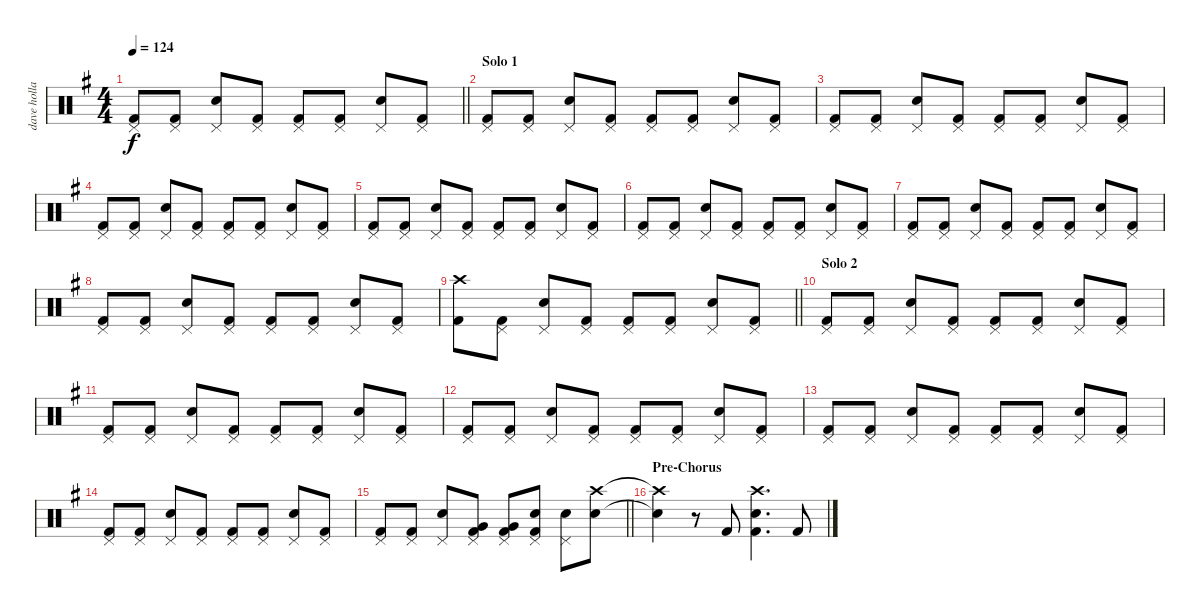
\track ("dave holland" "dave holla") {instrument percussion}
\staff {score}
\articulation defaults
\ts (4 4)
\tempo 124
\clef neutral
\barLineRight lightlight
\ks g
("Pedal Hi-Hat (hit)" "Kick (hit) 2").8{dy f} ("Pedal Hi-Hat (hit)" "Kick (hit) 2").8 ("Pedal Hi-Hat (hit)" "Snare (hit) 2").8 ("Pedal Hi-Hat (hit)" "Kick (hit) 2").8 ("Pedal Hi-Hat (hit)" "Kick (hit) 2").8 ("Pedal Hi-Hat (hit)" "Kick (hit) 2").8 ("Pedal Hi-Hat (hit)" "Snare (hit) 2").8 ("Pedal Hi-Hat (hit)" "Kick (hit) 2").8 |
\section ("" "Solo 1")
("Pedal Hi-Hat (hit)" "Kick (hit) 2").8 ("Pedal Hi-Hat (hit)" "Kick (hit) 2").8 ("Pedal Hi-Hat (hit)" "Snare (hit) 2").8 ("Pedal Hi-Hat (hit)" "Kick (hit) 2").8 ("Pedal Hi-Hat (hit)" "Kick (hit) 2").8 ("Pedal Hi-Hat (hit)" "Kick (hit) 2").8 ("Pedal Hi-Hat (hit)" "Snare (hit) 2").8 ("Pedal Hi-Hat (hit)" "Kick (hit) 2").8 |
("Pedal Hi-Hat (hit)" "Kick (hit) 2").8 ("Pedal Hi-Hat (hit)" "Kick (hit) 2").8 ("Pedal Hi-Hat (hit)" "Snare (hit) 2").8 ("Pedal Hi-Hat (hit)" "Kick (hit) 2").8 ("Pedal Hi-Hat (hit)" "Kick (hit) 2").8 ("Pedal Hi-Hat (hit)" "Kick (hit) 2").8 ("Pedal Hi-Hat (hit)" "Snare (hit) 2").8 ("Pedal Hi-Hat (hit)" "Kick (hit) 2").8 |
("Pedal Hi-Hat (hit)" "Kick (hit) 2").8 ("Pedal Hi-Hat (hit)" "Kick (hit) 2").8 ("Pedal Hi-Hat (hit)" "Snare (hit) 2").8 ("Pedal Hi-Hat (hit)" "Kick (hit) 2").8 ("Pedal Hi-Hat (hit)" "Kick (hit) 2").8 ("Pedal Hi-Hat (hit)" "Kick (hit) 2").8 ("Pedal Hi-Hat (hit)" "Snare (hit) 2").8 ("Pedal Hi-Hat (hit)" "Kick (hit) 2").8 |
("Pedal Hi-Hat (hit)" "Kick (hit) 2").8 ("Pedal Hi-Hat (hit)" "Kick (hit) 2").8 ("Pedal Hi-Hat (hit)" "Snare (hit) 2").8 ("Pedal Hi-Hat (hit)" "Kick (hit) 2").8 ("Pedal Hi-Hat (hit)" "Kick (hit) 2").8 ("Pedal Hi-Hat (hit)" "Kick (hit) 2").8 ("Pedal Hi-Hat (hit)" "Snare (hit) 2").8 ("Pedal Hi-Hat (hit)" "Kick (hit) 2").8 |
("Pedal Hi-Hat (hit)" "Kick (hit) 2").8 ("Pedal Hi-Hat (hit)" "Kick (hit) 2").8 ("Pedal Hi-Hat (hit)" "Snare (hit) 2").8 ("Pedal Hi-Hat (hit)" "Kick (hit) 2").8 ("Pedal Hi-Hat (hit)" "Kick (hit) 2").8 ("Pedal Hi-Hat (hit)" "Kick (hit) 2").8 ("Pedal Hi-Hat (hit)" "Snare (hit) 2").8 ("Pedal Hi-Hat (hit)" "Kick (hit) 2").8 |
("Pedal Hi-Hat (hit)" "Kick (hit) 2").8 ("Pedal Hi-Hat (hit)" "Kick (hit) 2").8 ("Pedal Hi-Hat (hit)" "Snare (hit) 2").8 ("Pedal Hi-Hat (hit)" "Kick (hit) 2").8 ("Pedal Hi-Hat (hit)" "Kick (hit) 2").8 ("Pedal Hi-Hat (hit)" "Kick (hit) 2").8 ("Pedal Hi-Hat (hit)" "Snare (hit) 2").8 ("Pedal Hi-Hat (hit)" "Kick (hit) 2").8 |
("Pedal Hi-Hat (hit)" "Kick (hit) 2").8 ("Pedal Hi-Hat (hit)" "Kick (hit) 2").8 ("Pedal Hi-Hat (hit)" "Snare (hit) 2").8 ("Pedal Hi-Hat (hit)" "Kick (hit) 2").8 ("Pedal Hi-Hat (hit)" "Kick (hit) 2").8 ("Pedal Hi-Hat (hit)" "Kick (hit) 2").8 ("Pedal Hi-Hat (hit)" "Snare (hit) 2").8 ("Pedal Hi-Hat (hit)" "Kick (hit) 2").8 |
\barLineRight lightlight
("Crash high (hit)" "Kick (hit) 2").8 ("Pedal Hi-Hat (hit)" "Kick (hit) 2").8 ("Pedal Hi-Hat (hit)" "Snare (hit) 2").8 ("Pedal Hi-Hat (hit)" "Kick (hit) 2").8 ("Pedal Hi-Hat (hit)" "Kick (hit) 2").8 ("Pedal Hi-Hat (hit)" "Kick (hit) 2").8 ("Pedal Hi-Hat (hit)" "Snare (hit) 2").8 ("Pedal Hi-Hat (hit)" "Kick (hit) 2").8 |
\section ("" "Solo 2")
("Pedal Hi-Hat (hit)" "Kick (hit) 2").8 ("Pedal Hi-Hat (hit)" "Kick (hit) 2").8 ("Pedal Hi-Hat (hit)" "Snare (hit) 2").8 ("Pedal Hi-Hat (hit)" "Kick (hit) 2").8 ("Pedal Hi-Hat (hit)" "Kick (hit) 2").8 ("Pedal Hi-Hat (hit)" "Kick (hit) 2").8 ("Pedal Hi-Hat (hit)" "Snare (hit) 2").8 ("Pedal Hi-Hat (hit)" "Kick (hit) 2").8 |
("Pedal Hi-Hat (hit)" "Kick (hit) 2").8 ("Pedal Hi-Hat (hit)" "Kick (hit) 2").8 ("Pedal Hi-Hat (hit)" "Snare (hit) 2").8 ("Pedal Hi-Hat (hit)" "Kick (hit) 2").8 ("Pedal Hi-Hat (hit)" "Kick (hit) 2").8 ("Pedal Hi-Hat (hit)" "Kick (hit) 2").8 ("Pedal Hi-Hat (hit)" "Snare (hit) 2").8 ("Pedal Hi-Hat (hit)" "Kick (hit) 2").8 |
("Pedal Hi-Hat (hit)" "Kick (hit) 2").8 ("Pedal Hi-Hat (hit)" "Kick (hit) 2").8 ("Pedal Hi-Hat (hit)" "Snare (hit) 2").8 ("Pedal Hi-Hat (hit)" "Kick (hit) 2").8 ("Pedal Hi-Hat (hit)" "Kick (hit) 2").8 ("Pedal Hi-Hat (hit)" "Kick (hit) 2").8 ("Pedal Hi-Hat (hit)" "Snare (hit) 2").8 ("Pedal Hi-Hat (hit)" "Kick (hit) 2").8 |
("Pedal Hi-Hat (hit)" "Kick (hit) 2").8 ("Pedal Hi-Hat (hit)" "Kick (hit) 2").8 ("Pedal Hi-Hat (hit)" "Snare (hit) 2").8 ("Pedal Hi-Hat (hit)" "Kick (hit) 2").8 ("Pedal Hi-Hat (hit)" "Kick (hit) 2").8 ("Pedal Hi-Hat (hit)" "Kick (hit) 2").8 ("Pedal Hi-Hat (hit)" "Snare (hit) 2").8 ("Pedal Hi-Hat (hit)" "Kick (hit) 2").8 |
("Pedal Hi-Hat (hit)" "Kick (hit) 2").8 ("Pedal Hi-Hat (hit)" "Kick (hit) 2").8 ("Pedal Hi-Hat (hit)" "Snare (hit) 2").8 ("Pedal Hi-Hat (hit)" "Kick (hit) 2").8 ("Pedal Hi-Hat (hit)" "Kick (hit) 2").8 ("Pedal Hi-Hat (hit)" "Kick (hit) 2").8 ("Pedal Hi-Hat (hit)" "Snare (hit) 2").8 ("Pedal Hi-Hat (hit)" "Kick (hit) 2").8 |
\barLineRight lightlight
("Pedal Hi-Hat (hit)" "Kick (hit) 2").8 ("Pedal Hi-Hat (hit)" "Kick (hit) 2").8 ("Pedal Hi-Hat (hit)" "Snare (hit) 2").8 ("Pedal Hi-Hat (hit)" "Very Low Tom (hit)" "Kick (hit) 2").8 ("Pedal Hi-Hat (hit)" "Very Low Tom (hit)" "Kick (hit) 2").8 ("Pedal Hi-Hat (hit)" "Electric Snare (hit)" "Kick (hit) 2").8 ("Pedal Hi-Hat (hit)" "Electric Snare (hit)").8 ("Crash high (hit)" "Snare (hit) 2").8 |
\section ("" "Pre-Chorus")
("Crash high (hit)"{t} "Snare (hit) 2"{t}).4 r.8 "Kick (hit) 2".8 ("Crash high (hit)" "Snare (hit) 2" "Kick (hit) 2").4{d} "Kick (hit) 2".8
